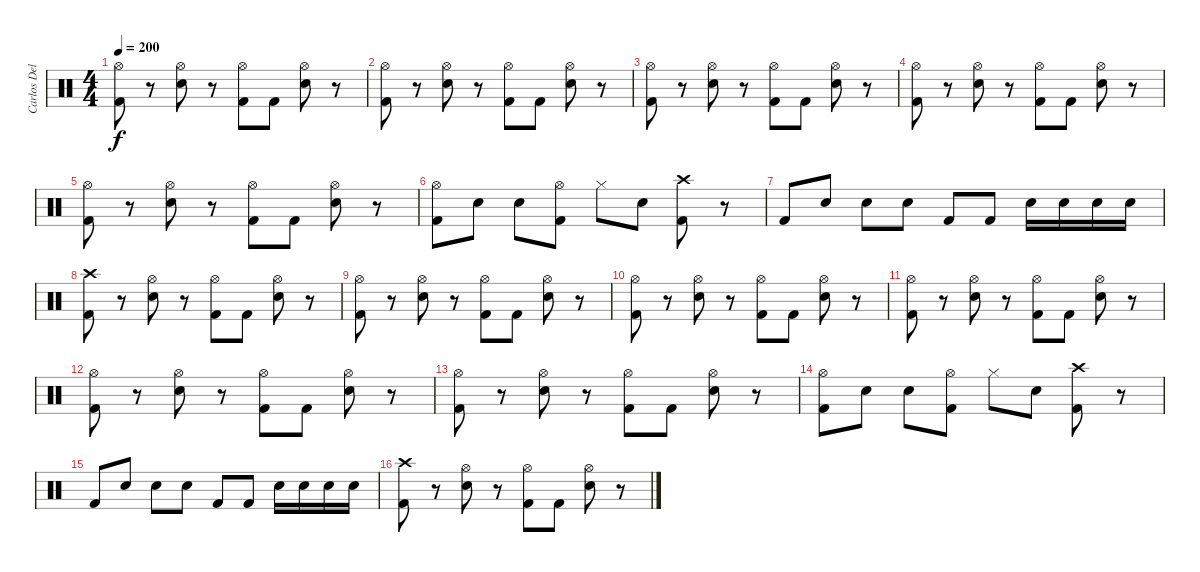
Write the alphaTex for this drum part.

\track ("Carlos Delgado" "Carlos Del") {instrument percussion}
\staff {score}
\articulation defaults
\ts (4 4)
\tempo 200
\clef neutral
\ks c
("Kick (hit) 2" "Hi-Hat (open)").8{dy f} r.8 ("Electric Snare (hit)" "Hi-Hat (open)").8 r.8 ("Hi-Hat (open)" "Kick (hit) 2").8 "Kick (hit) 2".8 ("Hi-Hat (open)" "Electric Snare (hit)").8 r.8 |
("Kick (hit) 2" "Hi-Hat (open)").8 r.8 ("Electric Snare (hit)" "Hi-Hat (open)").8 r.8 ("Kick (hit) 2" "Hi-Hat (open)").8 "Kick (hit) 2".8 ("Electric Snare (hit)" "Hi-Hat (open)").8 r.8 |
("Kick (hit) 2" "Hi-Hat (open)").8 r.8 ("Hi-Hat (open)" "Electric Snare (hit)").8 r.8 ("Hi-Hat (open)" "Kick (hit) 2").8 "Kick (hit) 2".8 ("Hi-Hat (open)" "Electric Snare (hit)").8 r.8 |
("Kick (hit) 2" "Hi-Hat (open)").8 r.8 ("Electric Snare (hit)" "Hi-Hat (open)").8 r.8 ("Hi-Hat (open)" "Kick (hit) 2").8 "Kick (hit) 2".8 ("Hi-Hat (open)" "Electric Snare (hit)").8 r.8 |
("Kick (hit) 2" "Hi-Hat (open)").8 r.8 ("Electric Snare (hit)" "Hi-Hat (open)").8 r.8 ("Kick (hit) 2" "Hi-Hat (open)").8 "Kick (hit) 2".8 ("Electric Snare (hit)" "Hi-Hat (open)").8 r.8 |
("Kick (hit) 2" "Hi-Hat (open)").8 "Electric Snare (hit)".8 "Electric Snare (hit)".8 ("Kick (hit) 2" "Hi-Hat (open)").8 "Hi-Hat (closed)".8 "Electric Snare (hit)".8 ("Crash high (hit)" "Kick (hit) 2").8 r.8 |
"Kick (hit) 2".8 "Electric Snare (hit)".8 "Electric Snare (hit)".8 "Electric Snare (hit)".8 "Kick (hit) 2".8 "Kick (hit) 2".8 "Electric Snare (hit)".16 "Electric Snare (hit)".16 "Electric Snare (hit)".16 "Electric Snare (hit)".16 |
("Crash high (hit)" "Kick (hit) 2").8 r.8 ("Electric Snare (hit)" "Hi-Hat (open)").8 r.8 ("Kick (hit) 2" "Hi-Hat (open)").8 "Kick (hit) 2".8 ("Electric Snare (hit)" "Hi-Hat (open)").8 r.8 |
("Kick (hit) 2" "Hi-Hat (open)").8 r.8 ("Electric Snare (hit)" "Hi-Hat (open)").8 r.8 ("Hi-Hat (open)" "Kick (hit) 2").8 "Kick (hit) 2".8 ("Hi-Hat (open)" "Electric Snare (hit)").8 r.8 |
("Kick (hit) 2" "Hi-Hat (open)").8 r.8 ("Electric Snare (hit)" "Hi-Hat (open)").8 r.8 ("Kick (hit) 2" "Hi-Hat (open)").8 "Kick (hit) 2".8 ("Electric Snare (hit)" "Hi-Hat (open)").8 r.8 |
("Kick (hit) 2" "Hi-Hat (open)").8 r.8 ("Hi-Hat (open)" "Electric Snare (hit)").8 r.8 ("Hi-Hat (open)" "Kick (hit) 2").8 "Kick (hit) 2".8 ("Hi-Hat (open)" "Electric Snare (hit)").8 r.8 |
("Kick (hit) 2" "Hi-Hat (open)").8 r.8 ("Electric Snare (hit)" "Hi-Hat (open)").8 r.8 ("Hi-Hat (open)" "Kick (hit) 2").8 "Kick (hit) 2".8 ("Hi-Hat (open)" "Electric Snare (hit)").8 r.8 |
("Kick (hit) 2" "Hi-Hat (open)").8 r.8 ("Electric Snare (hit)" "Hi-Hat (open)").8 r.8 ("Kick (hit) 2" "Hi-Hat (open)").8 "Kick (hit) 2".8 ("Electric Snare (hit)" "Hi-Hat (open)").8 r.8 |
("Kick (hit) 2" "Hi-Hat (open)").8 "Electric Snare (hit)".8 "Electric Snare (hit)".8 ("Kick (hit) 2" "Hi-Hat (open)").8 "Hi-Hat (closed)".8 "Electric Snare (hit)".8 ("Crash high (hit)" "Kick (hit) 2").8 r.8 |
"Kick (hit) 2".8 "Electric Snare (hit)".8 "Electric Snare (hit)".8 "Electric Snare (hit)".8 "Kick (hit) 2".8 "Kick (hit) 2".8 "Electric Snare (hit)".16 "Electric Snare (hit)".16 "Electric Snare (hit)".16 "Electric Snare (hit)".16 |
("Crash high (hit)" "Kick (hit) 2").8 r.8 ("Electric Snare (hit)" "Hi-Hat (open)").8 r.8 ("Kick (hit) 2" "Hi-Hat (open)").8 "Kick (hit) 2".8 ("Electric Snare (hit)" "Hi-Hat (open)").8 r.8
